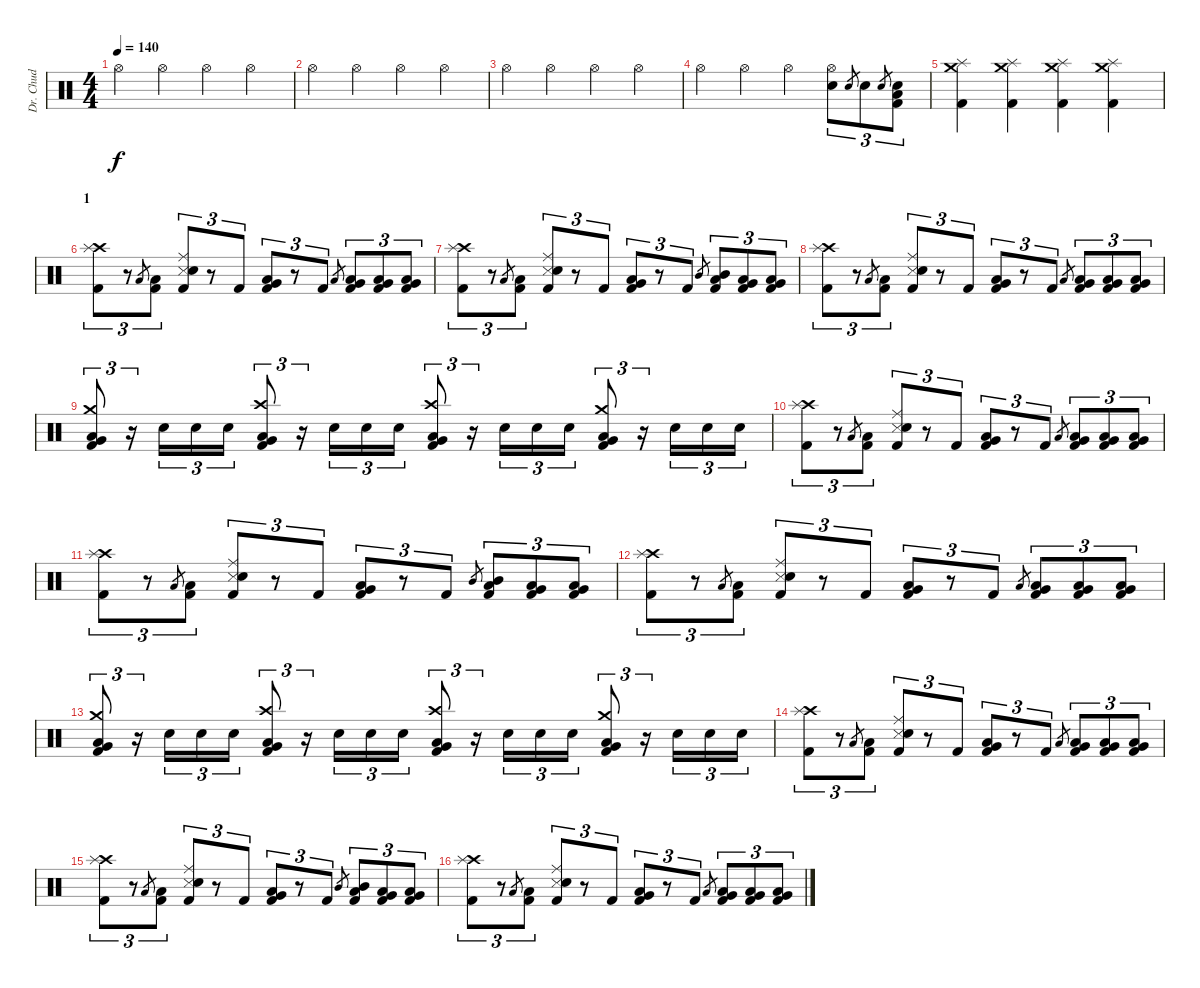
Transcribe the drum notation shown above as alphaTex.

\track ("Dr. Chud" "Dr. Chud") {instrument percussion}
\staff {score}
\articulation defaults
\ts (4 4)
\tempo 140
\clef neutral
\ks c "Hi-Hat (open)".4{dy f} "Hi-Hat (open)".4 "Hi-Hat (open)".4 "Hi-Hat (open)".4
|
"Hi-Hat (open)".4 "Hi-Hat (open)".4 "Hi-Hat (open)".4 "Hi-Hat (open)".4 |
"Hi-Hat (open)".4 "Hi-Hat (open)".4 "Hi-Hat (open)".4 "Hi-Hat (open)".4 |
"Hi-Hat (open)".4 "Hi-Hat (open)".4 "Hi-Hat (open)".4 ("Hi-Hat (open)" "Electric Snare (hit)").8{tu (3 2)} "Electric Snare (hit)".8{gr} "Electric Snare (hit)".8{tu (3 2)} "Electric Snare (hit)".8{gr} ("Low Floor Tom (hit)" "Electric Snare (hit)" "Kick (hit) 2").8{tu (3 2)} |
("Crash medium (hit)" "Splash (hit)" "Kick (hit) 2").4 ("Crash medium (hit)" "Splash (hit)" "Kick (hit) 2").4 ("Crash medium (hit)" "Splash (hit)" "Kick (hit) 2").4 ("Crash medium (hit)" "Splash (hit)" "Kick (hit) 2").4 |
\section ("" "1")
("Crash high (hit)" "Splash (hit)" "Kick (hit) 2").8{tu (3 2)} r.8{tu (3 2)} "Low Tom (hit)".8{gr} ("Low Tom (hit)" "Kick (hit) 2").8{tu (3 2)} ("Ride (middle)" "Snare (side stick) 3" "Electric Snare (hit)" "Kick (hit) 2").8{tu (3 2)} r.8{tu (3 2)} "Kick (hit) 2".8{tu (3 2)} ("Very Low Tom (hit)" "Low Floor Tom (hit)" "Kick (hit) 2").8{tu (3 2)} r.8{tu (3 2)} "Kick (hit) 2".8{tu (3 2)} "Low Tom (hit)".8{gr} ("Low Tom (hit)" "Very Low Tom (hit)" "Kick (hit) 2").8{tu (3 2)} ("Very Low Tom (hit)" "Low Floor Tom (hit)" "Kick (hit) 2").8{tu (3 2)} ("Low Tom (hit)" "Very Low Tom (hit)" "Kick (hit) 2").8{tu (3 2)} |
("Crash high (hit)" "Splash (hit)" "Kick (hit) 2").8{tu (3 2)} r.8{tu (3 2)} "Low Tom (hit)".8{gr} ("Low Tom (hit)" "Kick (hit) 2").8{tu (3 2)} ("Ride (middle)" "Snare (side stick) 3" "Electric Snare (hit)" "Kick (hit) 2").8{tu (3 2)} r.8{tu (3 2)} "Kick (hit) 2".8{tu (3 2)} ("Very Low Tom (hit)" "Low Floor Tom (hit)" "Kick (hit) 2").8{tu (3 2)} r.8{tu (3 2)} "Kick (hit) 2".8{tu (3 2)} "Mid Tom (hit)".8{gr} ("Mid Tom (hit)" "Low Tom (hit)" "Kick (hit) 2").8{tu (3 2)} ("Low Tom (hit)" "Very Low Tom (hit)" "Kick (hit) 2").8{tu (3 2)} ("Very Low Tom (hit)" "Low Floor Tom (hit)" "Kick (hit) 2").8{tu (3 2)} |
("Crash high (hit)" "Splash (hit)" "Kick (hit) 2").8{tu (3 2)} r.8{tu (3 2)} "Low Tom (hit)".8{gr} ("Low Tom (hit)" "Kick (hit) 2").8{tu (3 2)} ("Ride (middle)" "Snare (side stick) 3" "Electric Snare (hit)" "Kick (hit) 2").8{tu (3 2)} r.8{tu (3 2)} "Kick (hit) 2".8{tu (3 2)} ("Very Low Tom (hit)" "Low Floor Tom (hit)" "Kick (hit) 2").8{tu (3 2)} r.8{tu (3 2)} "Kick (hit) 2".8{tu (3 2)} "Low Tom (hit)".8{gr} ("Low Tom (hit)" "Very Low Tom (hit)" "Kick (hit) 2").8{tu (3 2)} ("Very Low Tom (hit)" "Low Floor Tom (hit)" "Kick (hit) 2").8{tu (3 2)} ("Low Tom (hit)" "Very Low Tom (hit)" "Kick (hit) 2").8{tu (3 2)} |
("Crash medium (hit)" "Low Tom (hit)" "Very Low Tom (hit)" "Kick (hit) 2").8{tu (3 2)} r.16{tu (3 2)} "Electric Snare (hit)".16{tu (3 2)} "Electric Snare (hit)".16{tu (3 2)} "Electric Snare (hit)".16{tu (3 2)} ("Crash high (hit)" "Very Low Tom (hit)" "Low Floor Tom (hit)" "Kick (hit) 2").8{tu (3 2)} r.16{tu (3 2)} "Electric Snare (hit)".16{tu (3 2)} "Electric Snare (hit)".16{tu (3 2)} "Electric Snare (hit)".16{tu (3 2)} ("Crash high (hit)" "Low Tom (hit)" "Very Low Tom (hit)" "Kick (hit) 2").8{tu (3 2)} r.16{tu (3 2)} "Electric Snare (hit)".16{tu (3 2)} "Electric Snare (hit)".16{tu (3 2)} "Electric Snare (hit)".16{tu (3 2)} ("Crash medium (hit)" "Very Low Tom (hit)" "Low Floor Tom (hit)" "Kick (hit) 2").8{tu (3 2)} r.16{tu (3 2)} "Electric Snare (hit)".16{tu (3 2)} "Electric Snare (hit)".16{tu (3 2)} "Electric Snare (hit)".16{tu (3 2)} |
("Crash high (hit)" "Splash (hit)" "Kick (hit) 2").8{tu (3 2)} r.8{tu (3 2)} "Low Tom (hit)".8{gr} ("Low Tom (hit)" "Kick (hit) 2").8{tu (3 2)} ("Ride (middle)" "Snare (side stick) 3" "Electric Snare (hit)" "Kick (hit) 2").8{tu (3 2)} r.8{tu (3 2)} "Kick (hit) 2".8{tu (3 2)} ("Very Low Tom (hit)" "Low Floor Tom (hit)" "Kick (hit) 2").8{tu (3 2)} r.8{tu (3 2)} "Kick (hit) 2".8{tu (3 2)} "Low Tom (hit)".8{gr} ("Low Tom (hit)" "Very Low Tom (hit)" "Kick (hit) 2").8{tu (3 2)} ("Very Low Tom (hit)" "Low Floor Tom (hit)" "Kick (hit) 2").8{tu (3 2)} ("Low Tom (hit)" "Very Low Tom (hit)" "Kick (hit) 2").8{tu (3 2)} |
("Crash high (hit)" "Splash (hit)" "Kick (hit) 2").8{tu (3 2)} r.8{tu (3 2)} "Low Tom (hit)".8{gr} ("Low Tom (hit)" "Kick (hit) 2").8{tu (3 2)} ("Ride (middle)" "Snare (side stick) 3" "Electric Snare (hit)" "Kick (hit) 2").8{tu (3 2)} r.8{tu (3 2)} "Kick (hit) 2".8{tu (3 2)} ("Very Low Tom (hit)" "Low Floor Tom (hit)" "Kick (hit) 2").8{tu (3 2)} r.8{tu (3 2)} "Kick (hit) 2".8{tu (3 2)} "Mid Tom (hit)".8{gr} ("Mid Tom (hit)" "Low Tom (hit)" "Kick (hit) 2").8{tu (3 2)} ("Low Tom (hit)" "Very Low Tom (hit)" "Kick (hit) 2").8{tu (3 2)} ("Very Low Tom (hit)" "Low Floor Tom (hit)" "Kick (hit) 2").8{tu (3 2)} |
("Crash high (hit)" "Splash (hit)" "Kick (hit) 2").8{tu (3 2)} r.8{tu (3 2)} "Low Tom (hit)".8{gr} ("Low Tom (hit)" "Kick (hit) 2").8{tu (3 2)} ("Ride (middle)" "Snare (side stick) 3" "Electric Snare (hit)" "Kick (hit) 2").8{tu (3 2)} r.8{tu (3 2)} "Kick (hit) 2".8{tu (3 2)} ("Very Low Tom (hit)" "Low Floor Tom (hit)" "Kick (hit) 2").8{tu (3 2)} r.8{tu (3 2)} "Kick (hit) 2".8{tu (3 2)} "Low Tom (hit)".8{gr} ("Low Tom (hit)" "Very Low Tom (hit)" "Kick (hit) 2").8{tu (3 2)} ("Very Low Tom (hit)" "Low Floor Tom (hit)" "Kick (hit) 2").8{tu (3 2)} ("Low Tom (hit)" "Very Low Tom (hit)" "Kick (hit) 2").8{tu (3 2)} |
("Crash medium (hit)" "Low Tom (hit)" "Very Low Tom (hit)" "Kick (hit) 2").8{tu (3 2)} r.16{tu (3 2)} "Electric Snare (hit)".16{tu (3 2)} "Electric Snare (hit)".16{tu (3 2)} "Electric Snare (hit)".16{tu (3 2)} ("Crash high (hit)" "Very Low Tom (hit)" "Low Floor Tom (hit)" "Kick (hit) 2").8{tu (3 2)} r.16{tu (3 2)} "Electric Snare (hit)".16{tu (3 2)} "Electric Snare (hit)".16{tu (3 2)} "Electric Snare (hit)".16{tu (3 2)} ("Crash high (hit)" "Low Tom (hit)" "Very Low Tom (hit)" "Kick (hit) 2").8{tu (3 2)} r.16{tu (3 2)} "Electric Snare (hit)".16{tu (3 2)} "Electric Snare (hit)".16{tu (3 2)} "Electric Snare (hit)".16{tu (3 2)} ("Crash medium (hit)" "Very Low Tom (hit)" "Low Floor Tom (hit)" "Kick (hit) 2").8{tu (3 2)} r.16{tu (3 2)} "Electric Snare (hit)".16{tu (3 2)} "Electric Snare (hit)".16{tu (3 2)} "Electric Snare (hit)".16{tu (3 2)} |
("Crash high (hit)" "Splash (hit)" "Kick (hit) 2").8{tu (3 2)} r.8{tu (3 2)} "Low Tom (hit)".8{gr} ("Low Tom (hit)" "Kick (hit) 2").8{tu (3 2)} ("Ride (middle)" "Snare (side stick) 3" "Electric Snare (hit)" "Kick (hit) 2").8{tu (3 2)} r.8{tu (3 2)} "Kick (hit) 2".8{tu (3 2)} ("Very Low Tom (hit)" "Low Floor Tom (hit)" "Kick (hit) 2").8{tu (3 2)} r.8{tu (3 2)} "Kick (hit) 2".8{tu (3 2)} "Low Tom (hit)".8{gr} ("Low Tom (hit)" "Very Low Tom (hit)" "Kick (hit) 2").8{tu (3 2)} ("Very Low Tom (hit)" "Low Floor Tom (hit)" "Kick (hit) 2").8{tu (3 2)} ("Low Tom (hit)" "Very Low Tom (hit)" "Kick (hit) 2").8{tu (3 2)} |
("Crash high (hit)" "Splash (hit)" "Kick (hit) 2").8{tu (3 2)} r.8{tu (3 2)} "Low Tom (hit)".8{gr} ("Low Tom (hit)" "Kick (hit) 2").8{tu (3 2)} ("Ride (middle)" "Snare (side stick) 3" "Electric Snare (hit)" "Kick (hit) 2").8{tu (3 2)} r.8{tu (3 2)} "Kick (hit) 2".8{tu (3 2)} ("Very Low Tom (hit)" "Low Floor Tom (hit)" "Kick (hit) 2").8{tu (3 2)} r.8{tu (3 2)} "Kick (hit) 2".8{tu (3 2)} "Mid Tom (hit)".8{gr} ("Mid Tom (hit)" "Low Tom (hit)" "Kick (hit) 2").8{tu (3 2)} ("Low Tom (hit)" "Very Low Tom (hit)" "Kick (hit) 2").8{tu (3 2)} ("Very Low Tom (hit)" "Low Floor Tom (hit)" "Kick (hit) 2").8{tu (3 2)} |
("Crash high (hit)" "Splash (hit)" "Kick (hit) 2").8{tu (3 2)} r.8{tu (3 2)} "Low Tom (hit)".8{gr} ("Low Tom (hit)" "Kick (hit) 2").8{tu (3 2)} ("Ride (middle)" "Snare (side stick) 3" "Electric Snare (hit)" "Kick (hit) 2").8{tu (3 2)} r.8{tu (3 2)} "Kick (hit) 2".8{tu (3 2)} ("Very Low Tom (hit)" "Low Floor Tom (hit)" "Kick (hit) 2").8{tu (3 2)} r.8{tu (3 2)} "Kick (hit) 2".8{tu (3 2)} "Low Tom (hit)".8{gr} ("Low Tom (hit)" "Very Low Tom (hit)" "Kick (hit) 2").8{tu (3 2)} ("Very Low Tom (hit)" "Low Floor Tom (hit)" "Kick (hit) 2").8{tu (3 2)} ("Low Tom (hit)" "Very Low Tom (hit)" "Kick (hit) 2").8{tu (3 2)}
